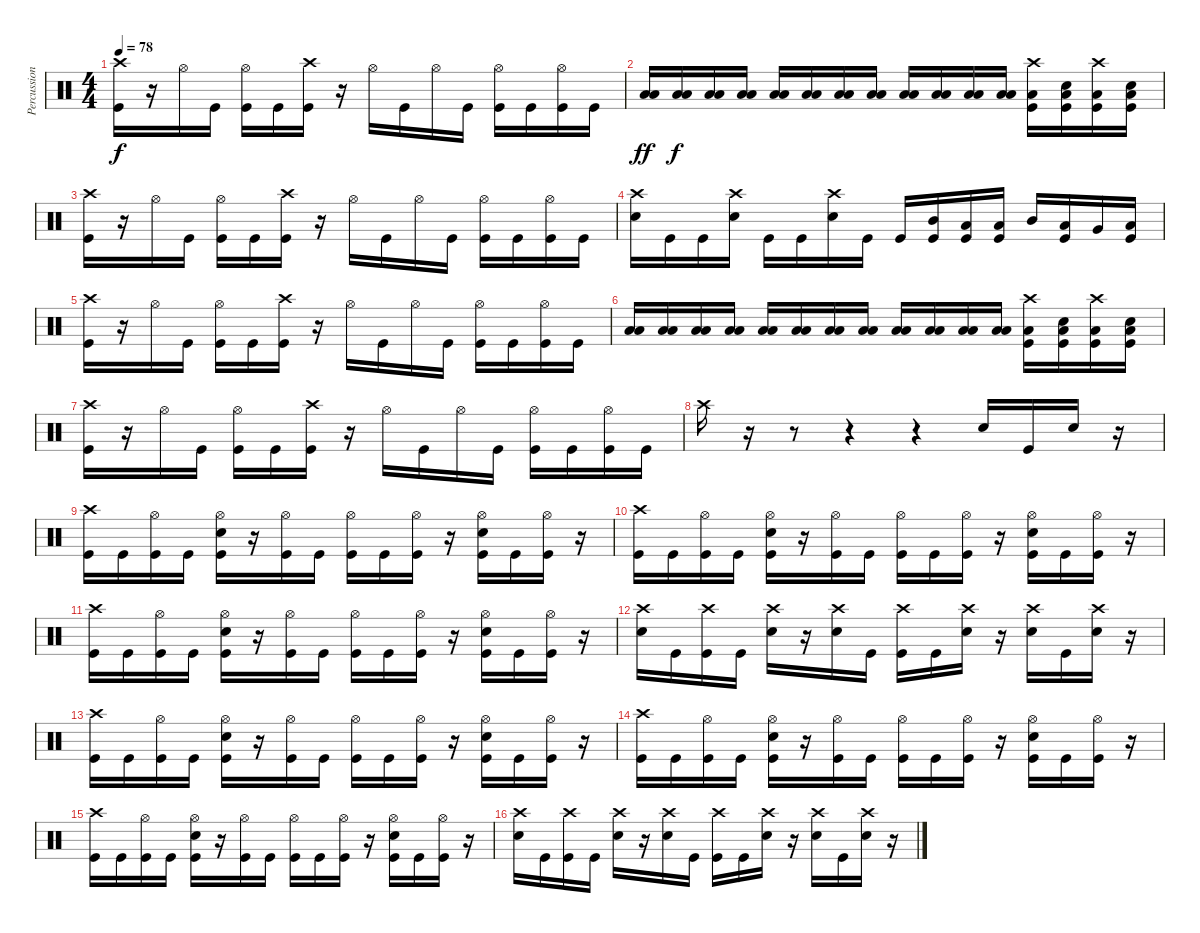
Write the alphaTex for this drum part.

\track ("Percussion" "Percussion") {instrument percussion}
\staff {score}
\articulation defaults
\ts (4 4)
\tempo 78
\clef neutral
\ks c
("Crash high (hit)" "Kick (hit)").16{dy f volume 12} r.16 "Hi-Hat (open)".16 "Kick (hit)".16 ("Hi-Hat (open)" "Kick (hit)").16 "Kick (hit)".16 ("Crash high (hit)" "Kick (hit)").16 r.16 "Hi-Hat (open)".16 "Kick (hit)".16 "Hi-Hat (open)".16 "Kick (hit)".16 ("Hi-Hat (open)" "Kick (hit)").16 "Kick (hit)".16 ("Hi-Hat (open)" "Kick (hit)").16 "Kick (hit)".16 |
("Low Floor Tom (hit)" "Low Tom (hit)").16{dy ff volume 3} ("Low Floor Tom (hit)" "Low Tom (hit)").16{dy f volume 12} ("Low Floor Tom (hit)" "Low Tom (hit)").16 ("Low Floor Tom (hit)" "Low Tom (hit)").16 ("Low Floor Tom (hit)" "Low Tom (hit)").16 ("Low Floor Tom (hit)" "Low Tom (hit)").16 ("Low Floor Tom (hit)" "Low Tom (hit)").16 ("Low Floor Tom (hit)" "Low Tom (hit)").16 ("Low Floor Tom (hit)" "Low Tom (hit)").16 ("Low Floor Tom (hit)" "Low Tom (hit)").16 ("Low Floor Tom (hit)" "Low Tom (hit)").16 ("Low Floor Tom (hit)" "Low Tom (hit)").16 ("Crash high (hit)" "Low Floor Tom (hit)" "Kick (hit)").16 ("Snare (hit) 2" "Low Floor Tom (hit)" "Kick (hit)").16 ("Crash high (hit)" "Low Floor Tom (hit)" "Kick (hit)").16 ("Snare (hit) 2" "Low Floor Tom (hit)" "Kick (hit)").16 |
("Crash high (hit)" "Kick (hit)").16{volume 12} r.16 "Hi-Hat (open)".16 "Kick (hit)".16 ("Hi-Hat (open)" "Kick (hit)").16 "Kick (hit)".16 ("Crash high (hit)" "Kick (hit)").16 r.16 "Hi-Hat (open)".16 "Kick (hit)".16 "Hi-Hat (open)".16 "Kick (hit)".16 ("Hi-Hat (open)" "Kick (hit)").16 "Kick (hit)".16 ("Hi-Hat (open)" "Kick (hit)").16 "Kick (hit)".16 |
("Crash high (hit)" "Snare (hit) 2").16 "Kick (hit)".16 "Kick (hit)".16 ("Crash high (hit)" "Snare (hit) 2").16 "Kick (hit)".16 "Kick (hit)".16 ("Crash high (hit)" "Snare (hit) 2").16 "Kick (hit)".16 "Kick (hit)".16{volume 16} ("Mid Tom (hit)" "Kick (hit)").16 ("Low Tom (hit)" "Kick (hit)").16 ("Low Floor Tom (hit)" "Kick (hit)").16 "Mid Tom (hit)".16 ("Low Tom (hit)" "Kick (hit)").16 "Very Low Tom (hit)".16 ("Low Floor Tom (hit)" "Kick (hit)").16 |
("Crash high (hit)" "Kick (hit)").16{volume 12} r.16 "Hi-Hat (open)".16 "Kick (hit)".16 ("Hi-Hat (open)" "Kick (hit)").16 "Kick (hit)".16 ("Crash high (hit)" "Kick (hit)").16 r.16 "Hi-Hat (open)".16 "Kick (hit)".16 "Hi-Hat (open)".16 "Kick (hit)".16 ("Hi-Hat (open)" "Kick (hit)").16 "Kick (hit)".16 ("Hi-Hat (open)" "Kick (hit)").16 "Kick (hit)".16 |
("Low Floor Tom (hit)" "Low Tom (hit)").16{volume 3} ("Low Floor Tom (hit)" "Low Tom (hit)").16{volume 12} ("Low Floor Tom (hit)" "Low Tom (hit)").16 ("Low Floor Tom (hit)" "Low Tom (hit)").16 ("Low Floor Tom (hit)" "Low Tom (hit)").16 ("Low Floor Tom (hit)" "Low Tom (hit)").16 ("Low Floor Tom (hit)" "Low Tom (hit)").16 ("Low Floor Tom (hit)" "Low Tom (hit)").16 ("Low Floor Tom (hit)" "Low Tom (hit)").16 ("Low Floor Tom (hit)" "Low Tom (hit)").16 ("Low Floor Tom (hit)" "Low Tom (hit)").16 ("Low Floor Tom (hit)" "Low Tom (hit)").16 ("Crash high (hit)" "Low Floor Tom (hit)" "Kick (hit)").16 ("Snare (hit) 2" "Low Floor Tom (hit)" "Kick (hit)").16 ("Crash high (hit)" "Low Floor Tom (hit)" "Kick (hit)").16 ("Snare (hit) 2" "Low Floor Tom (hit)" "Kick (hit)").16 |
("Crash high (hit)" "Kick (hit)").16{volume 12} r.16 "Hi-Hat (open)".16 "Kick (hit)".16 ("Hi-Hat (open)" "Kick (hit)").16 "Kick (hit)".16 ("Crash high (hit)" "Kick (hit)").16 r.16 "Hi-Hat (open)".16 "Kick (hit)".16 "Hi-Hat (open)".16 "Kick (hit)".16 ("Hi-Hat (open)" "Kick (hit)").16 "Kick (hit)".16 ("Hi-Hat (open)" "Kick (hit)").16 "Kick (hit)".16 |
"Crash high (hit)".16{volume 11} r.16 r.8 r.4 r.4 "Snare (hit) 2".16 "Kick (hit)".16 "Snare (hit) 2".16 r.16 |
("Crash high (hit)" "Kick (hit)").16 "Kick (hit)".16 ("Hi-Hat (open)" "Kick (hit)").16 "Kick (hit)".16 ("Hi-Hat (open)" "Snare (hit) 2" "Kick (hit)").16 r.16 ("Hi-Hat (open)" "Kick (hit)").16 "Kick (hit)".16 ("Hi-Hat (open)" "Kick (hit)").16 "Kick (hit)".16 ("Hi-Hat (open)" "Kick (hit)").16 r.16 ("Hi-Hat (open)" "Snare (hit) 2" "Kick (hit)").16 "Kick (hit)".16 ("Hi-Hat (open)" "Kick (hit)").16 r.16 |
("Crash high (hit)" "Kick (hit)").16 "Kick (hit)".16 ("Hi-Hat (open)" "Kick (hit)").16 "Kick (hit)".16 ("Hi-Hat (open)" "Snare (hit) 2" "Kick (hit)").16 r.16 ("Hi-Hat (open)" "Kick (hit)").16 "Kick (hit)".16 ("Hi-Hat (open)" "Kick (hit)").16 "Kick (hit)".16 ("Hi-Hat (open)" "Kick (hit)").16 r.16 ("Hi-Hat (open)" "Snare (hit) 2" "Kick (hit)").16 "Kick (hit)".16 ("Hi-Hat (open)" "Kick (hit)").16 r.16 |
("Crash high (hit)" "Kick (hit)").16 "Kick (hit)".16 ("Hi-Hat (open)" "Kick (hit)").16 "Kick (hit)".16 ("Hi-Hat (open)" "Snare (hit) 2" "Kick (hit)").16 r.16 ("Hi-Hat (open)" "Kick (hit)").16 "Kick (hit)".16 ("Hi-Hat (open)" "Kick (hit)").16 "Kick (hit)".16 ("Hi-Hat (open)" "Kick (hit)").16 r.16 ("Hi-Hat (open)" "Snare (hit) 2" "Kick (hit)").16 "Kick (hit)".16 ("Hi-Hat (open)" "Kick (hit)").16 r.16 |
("Crash high (hit)" "Snare (hit) 2").16 "Kick (hit)".16 ("Crash high (hit)" "Kick (hit)").16 "Kick (hit)".16 ("Crash high (hit)" "Snare (hit) 2").16 r.16 ("Crash high (hit)" "Snare (hit) 2").16 "Kick (hit)".16 ("Crash high (hit)" "Kick (hit)").16 "Kick (hit)".16 ("Crash high (hit)" "Snare (hit) 2").16 r.16 ("Crash high (hit)" "Snare (hit) 2").16 "Kick (hit)".16 ("Crash high (hit)" "Snare (hit) 2").16 r.16 |
("Crash high (hit)" "Kick (hit)").16 "Kick (hit)".16 ("Hi-Hat (open)" "Kick (hit)").16 "Kick (hit)".16 ("Hi-Hat (open)" "Snare (hit) 2" "Kick (hit)").16 r.16 ("Hi-Hat (open)" "Kick (hit)").16 "Kick (hit)".16 ("Hi-Hat (open)" "Kick (hit)").16 "Kick (hit)".16 ("Hi-Hat (open)" "Kick (hit)").16 r.16 ("Hi-Hat (open)" "Snare (hit) 2" "Kick (hit)").16 "Kick (hit)".16 ("Hi-Hat (open)" "Kick (hit)").16 r.16 |
("Crash high (hit)" "Kick (hit)").16 "Kick (hit)".16 ("Hi-Hat (open)" "Kick (hit)").16 "Kick (hit)".16 ("Hi-Hat (open)" "Snare (hit) 2" "Kick (hit)").16 r.16 ("Hi-Hat (open)" "Kick (hit)").16 "Kick (hit)".16 ("Hi-Hat (open)" "Kick (hit)").16 "Kick (hit)".16 ("Hi-Hat (open)" "Kick (hit)").16 r.16 ("Hi-Hat (open)" "Snare (hit) 2" "Kick (hit)").16 "Kick (hit)".16 ("Hi-Hat (open)" "Kick (hit)").16 r.16 |
("Crash high (hit)" "Kick (hit)").16 "Kick (hit)".16 ("Hi-Hat (open)" "Kick (hit)").16 "Kick (hit)".16 ("Hi-Hat (open)" "Snare (hit) 2" "Kick (hit)").16 r.16 ("Hi-Hat (open)" "Kick (hit)").16 "Kick (hit)".16 ("Hi-Hat (open)" "Kick (hit)").16 "Kick (hit)".16 ("Hi-Hat (open)" "Kick (hit)").16 r.16 ("Hi-Hat (open)" "Snare (hit) 2" "Kick (hit)").16 "Kick (hit)".16 ("Hi-Hat (open)" "Kick (hit)").16 r.16 |
("Crash high (hit)" "Snare (hit) 2").16 "Kick (hit)".16 ("Crash high (hit)" "Kick (hit)").16 "Kick (hit)".16 ("Crash high (hit)" "Snare (hit) 2").16 r.16 ("Crash high (hit)" "Snare (hit) 2").16 "Kick (hit)".16 ("Crash high (hit)" "Kick (hit)").16 "Kick (hit)".16 ("Crash high (hit)" "Snare (hit) 2").16 r.16 ("Crash high (hit)" "Snare (hit) 2").16 "Kick (hit)".16 ("Crash high (hit)" "Snare (hit) 2").16 r.16
